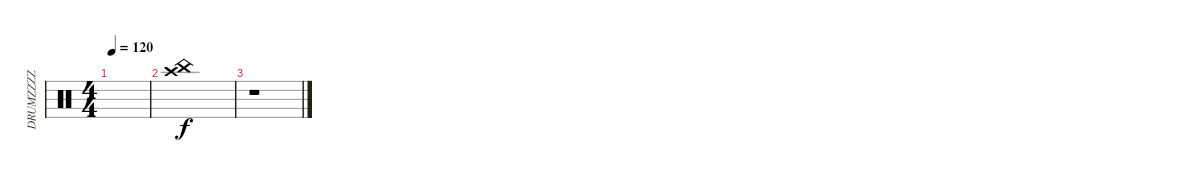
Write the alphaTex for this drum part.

\track ("DRUMZZZZ" "DRUMZZZZ") {instrument percussion}
\staff {score}
\articulation defaults
\ts (4 4)
\tempo 120
\clef neutral
\ks c
|
("Crash high (hit)" "China (hit)").1 |
r.1
